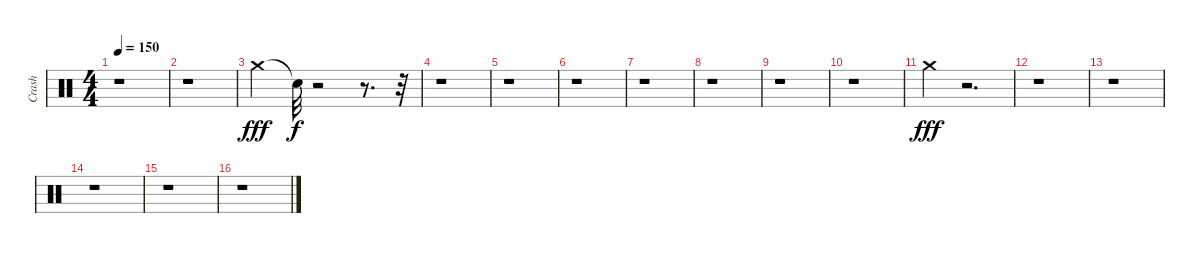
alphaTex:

\track ("Crash" "Crash") {instrument percussion}
\staff {score}
\articulation defaults
\ts (4 4)
\tempo 150
\clef neutral
\ks c
r.1{dy f} |
r.1 |
"Crash medium (hit)".4{dy fff} "Snare (hit)"{t}.32{dy f} r.2 r.8{d} r.32 |
r.1 |
r.1 |
r.1 |
r.1 |
r.1 |
r.1 |
r.1 |
"Crash medium (hit)".4{dy fff} r.2{d} |
r.1 |
r.1 |
r.1 |
r.1 |
r.1
